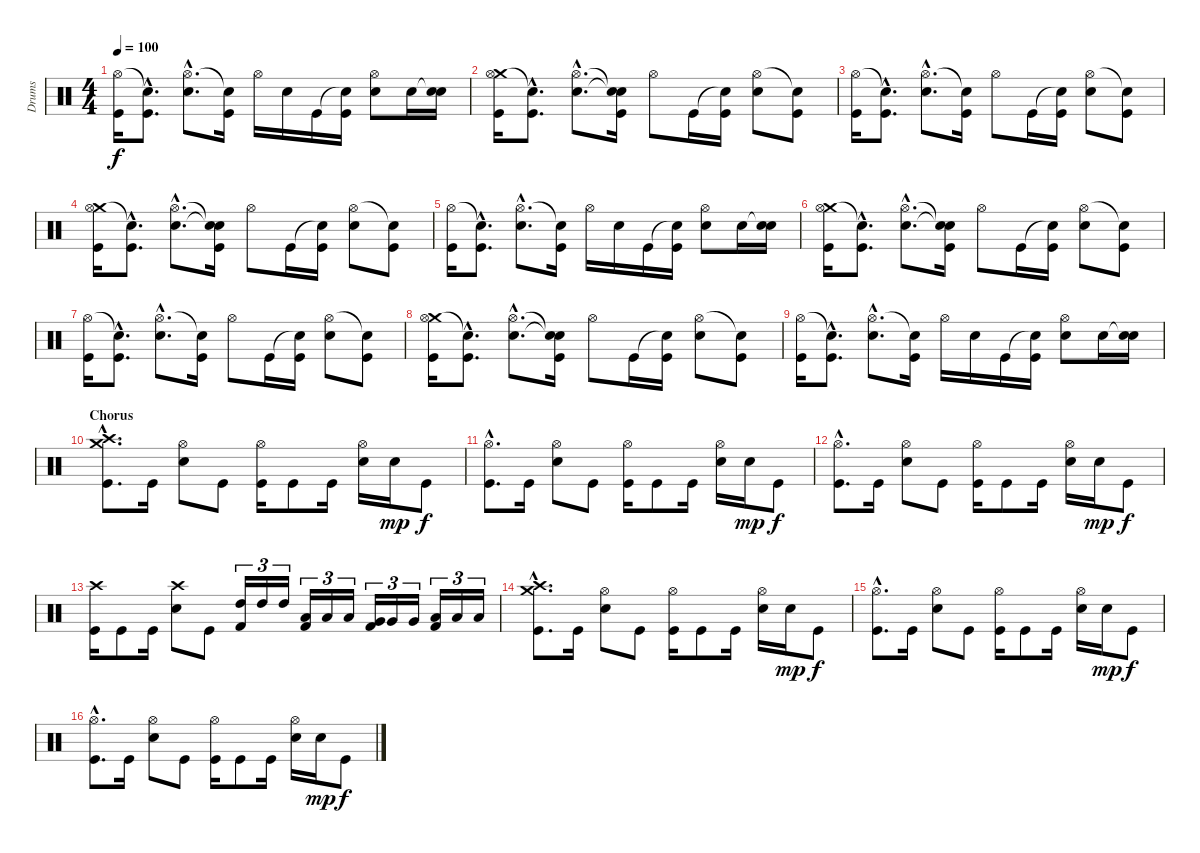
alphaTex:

\track ("Drums" "Drums") {instrument percussion}
\staff {score}
\articulation defaults
\ts (4 4)
\tempo 100
\clef neutral
\ks c
("Hi-Hat (open)" "Kick (hit)").16{dy f} ("Snare (hit)"{hac t} "Kick (hit)"{hac}).8{d} ("Hi-Hat (open)"{hac} "Electric Snare (hit)"{hac}).8{d} ("Snare (hit)"{t} "Kick (hit)").16 "Hi-Hat (open)".16 "Electric Snare (hit)".16 "Kick (hit)".16 ("Snare (hit)"{t} "Kick (hit)").16 ("Hi-Hat (open)" "Electric Snare (hit)").8 "Electric Snare (hit)".16 ("Snare (hit)"{t} "Electric Snare (hit)").16 |
("Crash medium (hit)" "Hi-Hat (open)" "Kick (hit)").16 ("Snare (hit)"{hac t} "Kick (hit)"{hac}).8{d} ("Hi-Hat (open)"{hac} "Electric Snare (hit)"{hac}).8{d} ("Snare (hit)"{t} "Snare (hit)"{t} "Kick (hit)").16 "Hi-Hat (open)".8 "Kick (hit)".16 ("Snare (hit)"{t} "Kick (hit)").16 ("Hi-Hat (open)" "Electric Snare (hit)").8 ("Snare (hit)"{t} "Kick (hit)").8 |
("Hi-Hat (open)" "Kick (hit)").16 ("Snare (hit)"{hac t} "Kick (hit)"{hac}).8{d} ("Hi-Hat (open)"{hac} "Electric Snare (hit)"{hac}).8{d} ("Snare (hit)"{t} "Kick (hit)").16 "Hi-Hat (open)".8 "Kick (hit)".16 ("Snare (hit)"{t} "Kick (hit)").16 ("Hi-Hat (open)" "Electric Snare (hit)").8 ("Snare (hit)"{t} "Kick (hit)").8 |
("Crash medium (hit)" "Hi-Hat (open)" "Kick (hit)").16 ("Snare (hit)"{hac t} "Kick (hit)"{hac}).8{d} ("Hi-Hat (open)"{hac} "Electric Snare (hit)"{hac}).8{d} ("Snare (hit)"{t} "Snare (hit)"{t} "Kick (hit)").16 "Hi-Hat (open)".8 "Kick (hit)".16 ("Snare (hit)"{t} "Kick (hit)").16 ("Hi-Hat (open)" "Electric Snare (hit)").8 ("Snare (hit)"{t} "Kick (hit)").8 |
("Hi-Hat (open)" "Kick (hit)").16 ("Snare (hit)"{hac t} "Kick (hit)"{hac}).8{d} ("Hi-Hat (open)"{hac} "Electric Snare (hit)"{hac}).8{d} ("Snare (hit)"{t} "Kick (hit)").16 "Hi-Hat (open)".16 "Electric Snare (hit)".16 "Kick (hit)".16 ("Snare (hit)"{t} "Kick (hit)").16 ("Hi-Hat (open)" "Electric Snare (hit)").8 "Electric Snare (hit)".16 ("Snare (hit)"{t} "Electric Snare (hit)").16 |
("Crash medium (hit)" "Hi-Hat (open)" "Kick (hit)").16 ("Snare (hit)"{hac t} "Kick (hit)"{hac}).8{d} ("Hi-Hat (open)"{hac} "Electric Snare (hit)"{hac}).8{d} ("Snare (hit)"{t} "Snare (hit)"{t} "Kick (hit)").16 "Hi-Hat (open)".8 "Kick (hit)".16 ("Snare (hit)"{t} "Kick (hit)").16 ("Hi-Hat (open)" "Electric Snare (hit)").8 ("Snare (hit)"{t} "Kick (hit)").8 |
("Hi-Hat (open)" "Kick (hit)").16 ("Snare (hit)"{hac t} "Kick (hit)"{hac}).8{d} ("Hi-Hat (open)"{hac} "Electric Snare (hit)"{hac}).8{d} ("Snare (hit)"{t} "Kick (hit)").16 "Hi-Hat (open)".8 "Kick (hit)".16 ("Snare (hit)"{t} "Kick (hit)").16 ("Hi-Hat (open)" "Electric Snare (hit)").8 ("Snare (hit)"{t} "Kick (hit)").8 |
("Crash medium (hit)" "Hi-Hat (open)" "Kick (hit)").16 ("Snare (hit)"{hac t} "Kick (hit)"{hac}).8{d} ("Hi-Hat (open)"{hac} "Electric Snare (hit)"{hac}).8{d} ("Snare (hit)"{t} "Snare (hit)"{t} "Kick (hit)").16 "Hi-Hat (open)".8 "Kick (hit)".16 ("Snare (hit)"{t} "Kick (hit)").16 ("Hi-Hat (open)" "Electric Snare (hit)").8 ("Snare (hit)"{t} "Kick (hit)").8 |
("Hi-Hat (open)" "Kick (hit)").16 ("Snare (hit)"{hac t} "Kick (hit)"{hac}).8{d} ("Hi-Hat (open)"{hac} "Electric Snare (hit)"{hac}).8{d} ("Snare (hit)"{t} "Kick (hit)").16 "Hi-Hat (open)".16 "Electric Snare (hit)".16 "Kick (hit)".16 ("Snare (hit)"{t} "Kick (hit)").16 ("Hi-Hat (open)" "Electric Snare (hit)").8 "Electric Snare (hit)".16 ("Snare (hit)"{t} "Electric Snare (hit)").16 |
\section ("" "Chorus")
("Crash medium (hit)"{hac} "Crash high (hit)"{hac} "Kick (hit)"{hac}).8{d} "Kick (hit)".16 ("Hi-Hat (open)" "Electric Snare (hit)").8 "Kick (hit)".8 ("Hi-Hat (open)" "Kick (hit)").16 "Kick (hit)".8 "Kick (hit)".16 ("Hi-Hat (open)" "Electric Snare (hit)").16 "Electric Snare (hit)".16{dy mp} "Kick (hit)".8{dy f} |
("Hi-Hat (open)"{hac} "Kick (hit)"{hac}).8{d} "Kick (hit)".16 ("Hi-Hat (open)" "Electric Snare (hit)").8 "Kick (hit)".8 ("Hi-Hat (open)" "Kick (hit)").16 "Kick (hit)".8 "Kick (hit)".16 ("Hi-Hat (open)" "Electric Snare (hit)").16 "Electric Snare (hit)".16{dy mp} "Kick (hit)".8{dy f} |
("Hi-Hat (open)"{hac} "Kick (hit)"{hac}).8{d} "Kick (hit)".16 ("Hi-Hat (open)" "Electric Snare (hit)").8 "Kick (hit)".8 ("Hi-Hat (open)" "Kick (hit)").16 "Kick (hit)".8 "Kick (hit)".16 ("Hi-Hat (open)" "Electric Snare (hit)").16 "Electric Snare (hit)".16{dy mp} "Kick (hit)".8{dy f} |
("Crash high (hit)" "Kick (hit)").16 "Kick (hit)".8 "Kick (hit)".16 ("Crash high (hit)" "Electric Snare (hit)").8 "Kick (hit)".8 ("High Tom (hit)" "Kick (hit) 2").16{tu (3 2)} "High Tom (hit)".16{tu (3 2)} "High Tom (hit)".16{tu (3 2)} ("Low Tom (hit)" "Kick (hit) 2").16{tu (3 2)} "Low Tom (hit)".16{tu (3 2)} "Low Tom (hit)".16{tu (3 2)} ("Very Low Tom (hit)" "Kick (hit) 2").16{tu (3 2)} "Very Low Tom (hit)".16{tu (3 2)} "Very Low Tom (hit)".16{tu (3 2)} ("Low Floor Tom (hit)" "Kick (hit) 2").16{tu (3 2)} "Low Floor Tom (hit)".16{tu (3 2)} "Low Floor Tom (hit)".16{tu (3 2)} |
("Crash medium (hit)"{hac} "Crash high (hit)"{hac} "Kick (hit)"{hac}).8{d} "Kick (hit)".16 ("Hi-Hat (open)" "Electric Snare (hit)").8 "Kick (hit)".8 ("Hi-Hat (open)" "Kick (hit)").16 "Kick (hit)".8 "Kick (hit)".16 ("Hi-Hat (open)" "Electric Snare (hit)").16 "Electric Snare (hit)".16{dy mp} "Kick (hit)".8{dy f} |
("Hi-Hat (open)"{hac} "Kick (hit)"{hac}).8{d} "Kick (hit)".16 ("Hi-Hat (open)" "Electric Snare (hit)").8 "Kick (hit)".8 ("Hi-Hat (open)" "Kick (hit)").16 "Kick (hit)".8 "Kick (hit)".16 ("Hi-Hat (open)" "Electric Snare (hit)").16 "Electric Snare (hit)".16{dy mp} "Kick (hit)".8{dy f} |
("Hi-Hat (open)"{hac} "Kick (hit)"{hac}).8{d} "Kick (hit)".16 ("Hi-Hat (open)" "Electric Snare (hit)").8 "Kick (hit)".8 ("Hi-Hat (open)" "Kick (hit)").16 "Kick (hit)".8 "Kick (hit)".16 ("Hi-Hat (open)" "Electric Snare (hit)").16 "Electric Snare (hit)".16{dy mp} "Kick (hit)".8{dy f}
